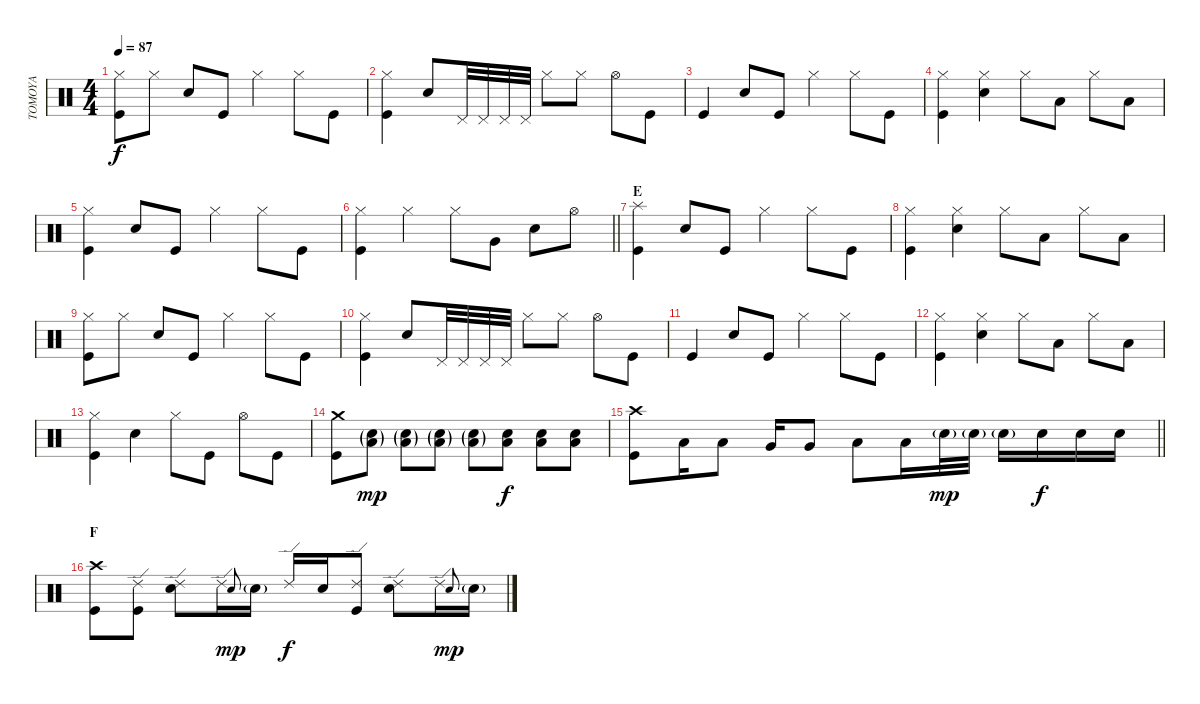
\track ("TOMOYA" "TOMOYA") {instrument percussion}
\staff {score}
\articulation defaults
\ts (4 4)
\tempo 87
\clef neutral
\ks c
("Kick (hit)" "Hi-Hat (closed)").8{dy f} "Hi-Hat (closed)".8 "Snare (hit) 2".8 "Kick (hit)".8 "Hi-Hat (closed)".4 "Hi-Hat (closed)".8 "Kick (hit)".8 |
("Kick (hit)" "Hi-Hat (closed)").4 "Snare (hit) 2".8 "Pedal Hi-Hat (hit)".32 "Pedal Hi-Hat (hit)".32 "Pedal Hi-Hat (hit)".32 "Pedal Hi-Hat (hit)".32 "Hi-Hat (closed)".8 "Hi-Hat (closed)".8 "Hi-Hat (open)".8 "Kick (hit)".8 |
"Kick (hit)".4 "Snare (hit) 2".8 "Kick (hit)".8 "Hi-Hat (closed)".4 "Hi-Hat (closed)".8 "Kick (hit)".8 |
("Kick (hit)" "Hi-Hat (closed)").4 ("Hi-Hat (closed)" "Snare (hit) 2").4 "Hi-Hat (closed)".8 "Low Tom (hit)".8 "Hi-Hat (closed)".8 "Low Floor Tom (hit)".8 |
("Kick (hit)" "Hi-Hat (closed)").4 "Snare (hit) 2".8 "Kick (hit)".8 "Hi-Hat (closed)".4 "Hi-Hat (closed)".8 "Kick (hit)".8 |
\barLineRight lightlight
("Kick (hit)" "Hi-Hat (closed)").4 "Hi-Hat (closed)".4 "Hi-Hat (closed)".8 "Very Low Tom (hit)".8 "Snare (hit) 2".8 "Hi-Hat (open)".8 |
\section ("" "E")
("Kick (hit)" "Splash (hit)").4 "Snare (hit) 2".8 "Kick (hit)".8 "Hi-Hat (closed)".4 "Hi-Hat (closed)".8 "Kick (hit)".8 |
("Kick (hit)" "Hi-Hat (closed)").4 ("Hi-Hat (closed)" "Snare (hit) 2").4 "Hi-Hat (closed)".8 "Low Tom (hit)".8 "Hi-Hat (closed)".8 "Low Floor Tom (hit)".8 |
("Kick (hit)" "Hi-Hat (closed)").8 "Hi-Hat (closed)".8 "Snare (hit) 2".8 "Kick (hit)".8 "Hi-Hat (closed)".4 "Hi-Hat (closed)".8 "Kick (hit)".8 |
("Kick (hit)" "Hi-Hat (closed)").4 "Snare (hit) 2".8 "Pedal Hi-Hat (hit)".32 "Pedal Hi-Hat (hit)".32 "Pedal Hi-Hat (hit)".32 "Pedal Hi-Hat (hit)".32 "Hi-Hat (closed)".8 "Hi-Hat (closed)".8 "Hi-Hat (open)".8 "Kick (hit)".8 |
"Kick (hit)".4 "Snare (hit) 2".8 "Kick (hit)".8 "Hi-Hat (closed)".4 "Hi-Hat (closed)".8 "Kick (hit)".8 |
("Kick (hit)" "Hi-Hat (closed)").4 ("Hi-Hat (closed)" "Snare (hit) 2").4 "Hi-Hat (closed)".8 "Low Tom (hit)".8 "Hi-Hat (closed)".8 "Low Floor Tom (hit)".8 |
("Kick (hit)" "Hi-Hat (closed)").4 "Snare (hit) 2".4 "Hi-Hat (closed)".8 "Kick (hit)".8 "Hi-Hat (open)".8 "Kick (hit)".8 |
("Kick (hit)" "Crash medium (hit)").8 ("Low Floor Tom (hit)"{g} "Snare (hit) 2"{g}).8{dy mp} ("Low Floor Tom (hit)"{g} "Snare (hit) 2"{g}).8 ("Low Floor Tom (hit)"{g} "Snare (hit) 2"{g}).8 ("Low Floor Tom (hit)"{g} "Snare (hit) 2"{g}).8 ("Low Floor Tom (hit)" "Snare (hit) 2").8{dy f} ("Low Floor Tom (hit)" "Snare (hit) 2").8 ("Low Floor Tom (hit)" "Snare (hit) 2").8 |
\barLineRight lightlight
("Kick (hit)" "Crash high (hit)").8 "Low Tom (hit)".16 "Low Tom (hit)".8 "Very Low Tom (hit)".16 "Very Low Tom (hit)".8 "Low Floor Tom (hit)".8 "Low Floor Tom (hit)".16 "Snare (hit) 2"{g}.32{dy mp} "Snare (hit) 2"{g}.32 "Snare (hit) 2"{g}.16 "Snare (hit) 2".16{dy f} "Snare (hit) 2".16 "Snare (hit) 2".16 |
\section ("" "F")
("Kick (hit)" "Crash high (hit)").8 ("Kick (hit)" "Ride (edge) 2").8 ("Snare (hit) 2" "Ride (edge) 2").8 "Ride (edge) 2".16 "Snare (hit) 2".8{gr onbeat dy mp} "Snare (hit) 2"{g}.16 "Ride (edge) 2".16{dy f} "Snare (hit) 2".16 ("Kick (hit)" "Ride (edge) 2").8 ("Snare (hit) 2" "Ride (edge) 2").8 "Ride (edge) 2".16 "Snare (hit) 2".8{gr onbeat dy mp} "Snare (hit) 2"{g}.16
